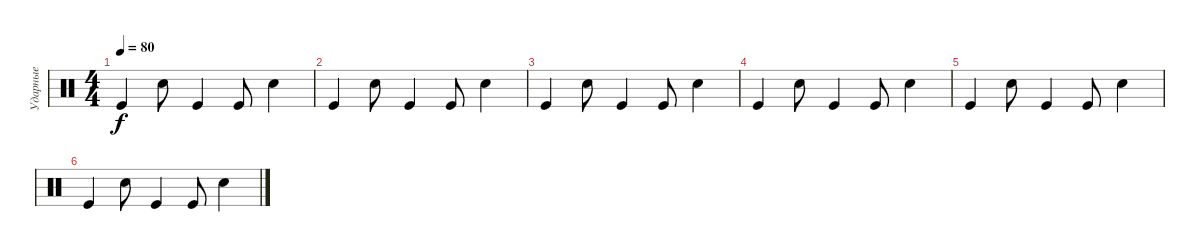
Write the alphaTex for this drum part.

\track ("Ударные" "Ударные") {instrument percussion bank 1}
\staff {score}
\articulation defaults
\ts (4 4)
\tempo 80
\clef neutral
\ks c "Kick (hit)".4{dy f} "Snare (hit) 2".8 "Kick (hit)".4 "Kick (hit)".8 "Snare (hit) 2".4
|
"Kick (hit)".4 "Snare (hit) 2".8 "Kick (hit)".4 "Kick (hit)".8 "Snare (hit) 2".4 |
"Kick (hit)".4 "Snare (hit) 2".8 "Kick (hit)".4 "Kick (hit)".8 "Snare (hit) 2".4 |
"Kick (hit)".4 "Snare (hit) 2".8 "Kick (hit)".4 "Kick (hit)".8 "Snare (hit) 2".4 |
"Kick (hit)".4 "Snare (hit) 2".8 "Kick (hit)".4 "Kick (hit)".8 "Snare (hit) 2".4 |
"Kick (hit)".4 "Snare (hit) 2".8 "Kick (hit)".4 "Kick (hit)".8 "Snare (hit) 2".4
